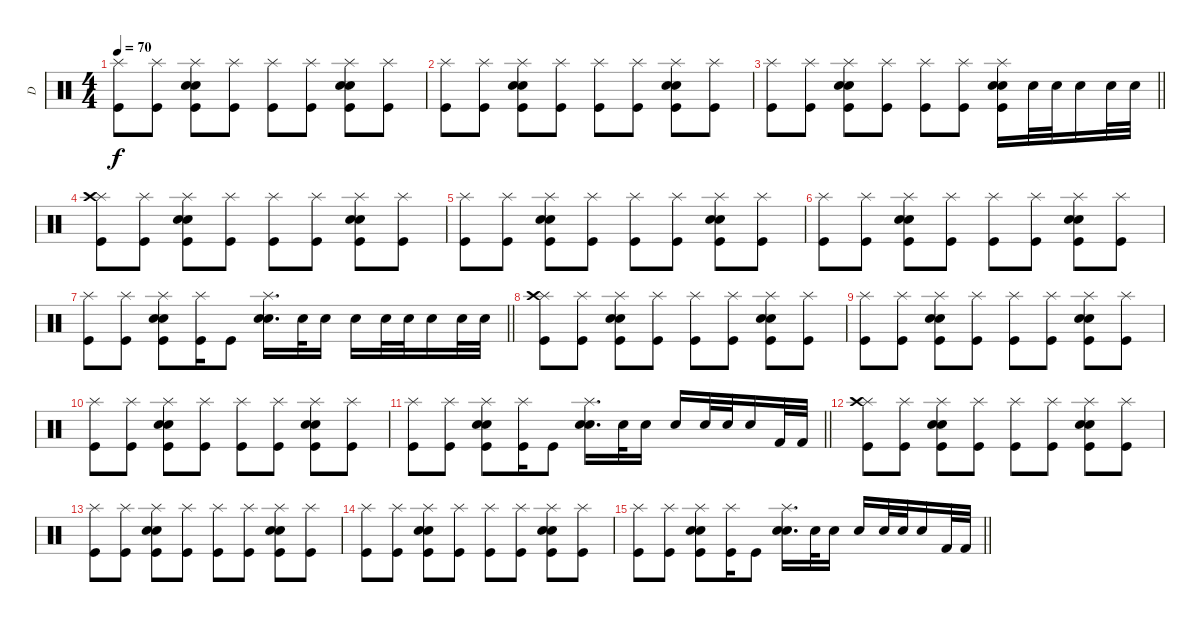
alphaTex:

\track ("D" "D") {instrument percussion}
\staff {score}
\articulation defaults
\ts (4 4)
\tempo 70
\clef neutral
\ks c
("Splash (hit)" "Kick (hit)").8{dy f} ("Splash (hit)" "Kick (hit)").8 ("Splash (hit)" "Electric Snare (hit)" "Electric Snare (hit)" "Kick (hit)").8 ("Splash (hit)" "Kick (hit)").8 ("Splash (hit)" "Kick (hit)").8 ("Splash (hit)" "Kick (hit)").8 ("Splash (hit)" "Electric Snare (hit)" "Electric Snare (hit)" "Kick (hit)").8 ("Splash (hit)" "Kick (hit)").8 |
("Splash (hit)" "Kick (hit)").8 ("Splash (hit)" "Kick (hit)").8 ("Splash (hit)" "Electric Snare (hit)" "Electric Snare (hit)" "Kick (hit)").8 ("Splash (hit)" "Kick (hit)").8 ("Splash (hit)" "Kick (hit)").8 ("Splash (hit)" "Kick (hit)").8 ("Splash (hit)" "Electric Snare (hit)" "Electric Snare (hit)" "Kick (hit)").8 ("Splash (hit)" "Kick (hit)").8 |
\barLineRight lightlight
("Splash (hit)" "Kick (hit)").8 ("Splash (hit)" "Kick (hit)").8 ("Splash (hit)" "Electric Snare (hit)" "Electric Snare (hit)" "Kick (hit)").8 ("Splash (hit)" "Kick (hit)").8 ("Splash (hit)" "Kick (hit)").8 ("Splash (hit)" "Kick (hit)").8 ("Splash (hit)" "Electric Snare (hit)" "Electric Snare (hit)" "Kick (hit)").16 "Electric Snare (hit)".32 "Electric Snare (hit)".32 "Electric Snare (hit)".16 "Electric Snare (hit)".32 "Electric Snare (hit)".32 |
("Splash (hit)" "Crash high (hit)" "Kick (hit)").8 ("Splash (hit)" "Kick (hit)").8 ("Splash (hit)" "Electric Snare (hit)" "Electric Snare (hit)" "Kick (hit)").8 ("Splash (hit)" "Kick (hit)").8 ("Splash (hit)" "Kick (hit)").8 ("Splash (hit)" "Kick (hit)").8 ("Splash (hit)" "Electric Snare (hit)" "Electric Snare (hit)" "Kick (hit)").8 ("Splash (hit)" "Kick (hit)").8 |
("Splash (hit)" "Kick (hit)").8 ("Splash (hit)" "Kick (hit)").8 ("Splash (hit)" "Electric Snare (hit)" "Electric Snare (hit)" "Kick (hit)").8 ("Splash (hit)" "Kick (hit)").8 ("Splash (hit)" "Kick (hit)").8 ("Splash (hit)" "Kick (hit)").8 ("Splash (hit)" "Electric Snare (hit)" "Electric Snare (hit)" "Kick (hit)").8 ("Splash (hit)" "Kick (hit)").8 |
("Splash (hit)" "Kick (hit)").8 ("Splash (hit)" "Kick (hit)").8 ("Splash (hit)" "Electric Snare (hit)" "Electric Snare (hit)" "Kick (hit)").8 ("Splash (hit)" "Kick (hit)").8 ("Splash (hit)" "Kick (hit)").8 ("Splash (hit)" "Kick (hit)").8 ("Splash (hit)" "Electric Snare (hit)" "Electric Snare (hit)" "Kick (hit)").8 ("Splash (hit)" "Kick (hit)").8 |
\barLineRight lightlight
("Splash (hit)" "Kick (hit)").8 ("Splash (hit)" "Kick (hit)").8 ("Splash (hit)" "Electric Snare (hit)" "Electric Snare (hit)" "Kick (hit)").8 ("Splash (hit)" "Kick (hit)").16 "Kick (hit)".8 ("Splash (hit)" "Electric Snare (hit)" "Electric Snare (hit)").16{d} "Electric Snare (hit)".32 "Electric Snare (hit)".16 "Electric Snare (hit)".16 "Electric Snare (hit)".32 "Electric Snare (hit)".32 "Electric Snare (hit)".16 "Electric Snare (hit)".32 "Electric Snare (hit)".32 |
("Splash (hit)" "Crash high (hit)" "Kick (hit)").8 ("Splash (hit)" "Kick (hit)").8 ("Splash (hit)" "Electric Snare (hit)" "Electric Snare (hit)" "Kick (hit)").8 ("Splash (hit)" "Kick (hit)").8 ("Splash (hit)" "Kick (hit)").8 ("Splash (hit)" "Kick (hit)").8 ("Splash (hit)" "Electric Snare (hit)" "Electric Snare (hit)" "Kick (hit)").8 ("Splash (hit)" "Kick (hit)").8 |
("Splash (hit)" "Kick (hit)").8 ("Splash (hit)" "Kick (hit)").8 ("Splash (hit)" "Electric Snare (hit)" "Electric Snare (hit)" "Kick (hit)").8 ("Splash (hit)" "Kick (hit)").8 ("Splash (hit)" "Kick (hit)").8 ("Splash (hit)" "Kick (hit)").8 ("Splash (hit)" "Electric Snare (hit)" "Electric Snare (hit)" "Kick (hit)").8 ("Splash (hit)" "Kick (hit)").8 |
("Splash (hit)" "Kick (hit)").8 ("Splash (hit)" "Kick (hit)").8 ("Splash (hit)" "Electric Snare (hit)" "Electric Snare (hit)" "Kick (hit)").8 ("Splash (hit)" "Kick (hit)").8 ("Splash (hit)" "Kick (hit)").8 ("Splash (hit)" "Kick (hit)").8 ("Splash (hit)" "Electric Snare (hit)" "Electric Snare (hit)" "Kick (hit)").8 ("Splash (hit)" "Kick (hit)").8 |
\barLineRight lightlight
("Splash (hit)" "Kick (hit)").8 ("Splash (hit)" "Kick (hit)").8 ("Splash (hit)" "Electric Snare (hit)" "Electric Snare (hit)" "Kick (hit)").8 ("Splash (hit)" "Kick (hit)").16 "Kick (hit)".8 ("Splash (hit)" "Electric Snare (hit)" "Electric Snare (hit)").16{d} "Electric Snare (hit)".32 "Electric Snare (hit)".16 "Electric Snare (hit)".16 "Electric Snare (hit)".32 "Electric Snare (hit)".32 "Electric Snare (hit)".16 "Kick (hit) 2".32 "Kick (hit) 2".32 |
("Splash (hit)" "Crash high (hit)" "Kick (hit)").8 ("Splash (hit)" "Kick (hit)").8 ("Splash (hit)" "Electric Snare (hit)" "Electric Snare (hit)" "Kick (hit)").8 ("Splash (hit)" "Kick (hit)").8 ("Splash (hit)" "Kick (hit)").8 ("Splash (hit)" "Kick (hit)").8 ("Splash (hit)" "Electric Snare (hit)" "Electric Snare (hit)" "Kick (hit)").8 ("Splash (hit)" "Kick (hit)").8 |
("Splash (hit)" "Kick (hit)").8 ("Splash (hit)" "Kick (hit)").8 ("Splash (hit)" "Electric Snare (hit)" "Electric Snare (hit)" "Kick (hit)").8 ("Splash (hit)" "Kick (hit)").8 ("Splash (hit)" "Kick (hit)").8 ("Splash (hit)" "Kick (hit)").8 ("Splash (hit)" "Electric Snare (hit)" "Electric Snare (hit)" "Kick (hit)").8 ("Splash (hit)" "Kick (hit)").8 |
("Splash (hit)" "Kick (hit)").8 ("Splash (hit)" "Kick (hit)").8 ("Splash (hit)" "Electric Snare (hit)" "Electric Snare (hit)" "Kick (hit)").8 ("Splash (hit)" "Kick (hit)").8 ("Splash (hit)" "Kick (hit)").8 ("Splash (hit)" "Kick (hit)").8 ("Splash (hit)" "Electric Snare (hit)" "Electric Snare (hit)" "Kick (hit)").8 ("Splash (hit)" "Kick (hit)").8 |
\barLineRight lightlight
("Splash (hit)" "Kick (hit)").8 ("Splash (hit)" "Kick (hit)").8 ("Splash (hit)" "Electric Snare (hit)" "Electric Snare (hit)" "Kick (hit)").8 ("Splash (hit)" "Kick (hit)").16 "Kick (hit)".8 ("Splash (hit)" "Electric Snare (hit)" "Electric Snare (hit)").16{d} "Electric Snare (hit)".32 "Electric Snare (hit)".16 "Electric Snare (hit)".16 "Electric Snare (hit)".32 "Electric Snare (hit)".32 "Electric Snare (hit)".16 "Kick (hit) 2".32 "Kick (hit) 2".32
